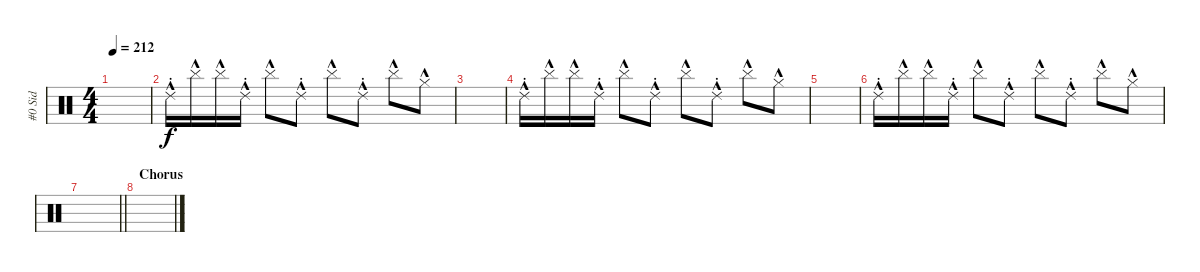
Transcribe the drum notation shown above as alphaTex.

\track ("#0 Sid" "#0 Sid") {instrument percussion}
\staff {score}
\articulation defaults
\ts (4 4)
\tempo 212
\clef neutral
\ks c
|
"Ride (choke) 2"{hac}.16 "Cymbal (hit)"{hac}.16 "Cymbal (hit)"{hac}.16 "Ride (choke) 2"{hac}.16 "Cymbal (hit)"{hac}.8 "Ride (choke) 2"{hac}.8 "Cymbal (hit)"{hac}.8 "Ride (choke) 2"{hac}.8 "Cymbal (hit)"{hac}.8 "Hi-Hat (closed)"{hac}.8 |
|
"Ride (choke) 2"{hac}.16 "Cymbal (hit)"{hac}.16 "Cymbal (hit)"{hac}.16 "Ride (choke) 2"{hac}.16 "Cymbal (hit)"{hac}.8 "Ride (choke) 2"{hac}.8 "Cymbal (hit)"{hac}.8 "Ride (choke) 2"{hac}.8 "Cymbal (hit)"{hac}.8 "Hi-Hat (closed)"{hac}.8 |
|
"Ride (choke) 2"{hac}.16 "Cymbal (hit)"{hac}.16 "Cymbal (hit)"{hac}.16 "Ride (choke) 2"{hac}.16 "Cymbal (hit)"{hac}.8 "Ride (choke) 2"{hac}.8 "Cymbal (hit)"{hac}.8 "Ride (choke) 2"{hac}.8 "Cymbal (hit)"{hac}.8 "Hi-Hat (closed)"{hac}.8 |
\barLineRight lightlight
|
\section ("" "Chorus")
